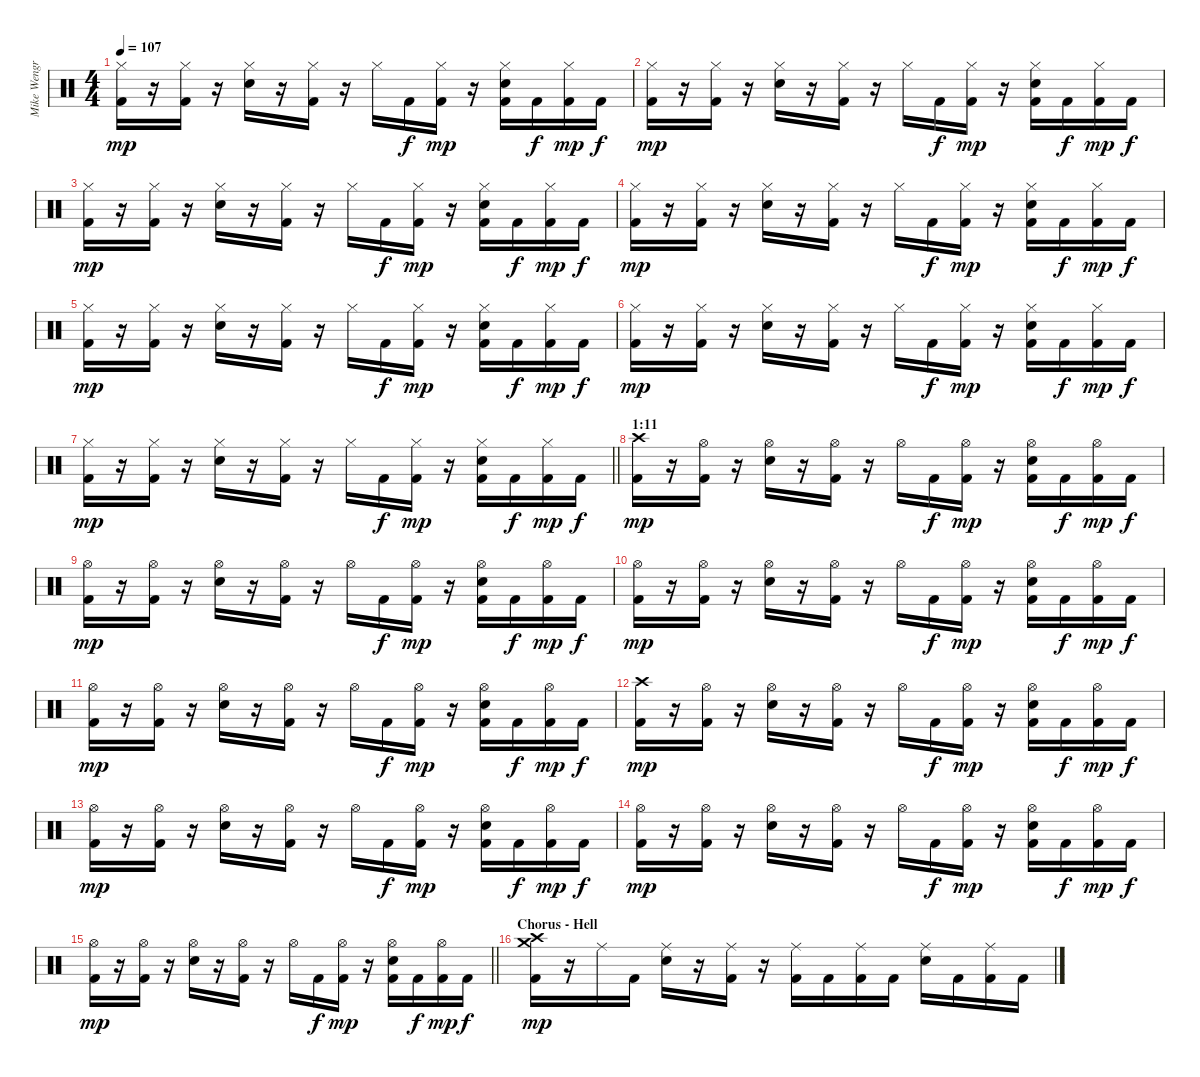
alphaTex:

\track ("Mike Wengren" "Mike Wengr") {instrument percussion}
\staff {score}
\articulation defaults
\ts (4 4)
\tempo 107
\clef neutral
\ks c
("Hi-Hat (closed)" "Kick (hit) 2").16{dy mp} r.16 ("Hi-Hat (closed)" "Kick (hit) 2").16 r.16 ("Hi-Hat (closed)" "Snare (hit) 2").16 r.16 ("Hi-Hat (closed)" "Kick (hit) 2").16 r.16 "Hi-Hat (closed)".16 "Kick (hit) 2".16{dy f} ("Hi-Hat (closed)" "Kick (hit) 2").16{dy mp} r.16 ("Hi-Hat (closed)" "Snare (hit) 2" "Kick (hit) 2").16 "Kick (hit) 2".16{dy f} ("Hi-Hat (closed)" "Kick (hit) 2").16{dy mp} "Kick (hit) 2".16{dy f} |
("Hi-Hat (closed)" "Kick (hit) 2").16{dy mp} r.16 ("Hi-Hat (closed)" "Kick (hit) 2").16 r.16 ("Hi-Hat (closed)" "Snare (hit) 2").16 r.16 ("Hi-Hat (closed)" "Kick (hit) 2").16 r.16 "Hi-Hat (closed)".16 "Kick (hit) 2".16{dy f} ("Hi-Hat (closed)" "Kick (hit) 2").16{dy mp} r.16 ("Hi-Hat (closed)" "Snare (hit) 2" "Kick (hit) 2").16 "Kick (hit) 2".16{dy f} ("Hi-Hat (closed)" "Kick (hit) 2").16{dy mp} "Kick (hit) 2".16{dy f} |
("Hi-Hat (closed)" "Kick (hit) 2").16{dy mp} r.16 ("Hi-Hat (closed)" "Kick (hit) 2").16 r.16 ("Hi-Hat (closed)" "Snare (hit) 2").16 r.16 ("Hi-Hat (closed)" "Kick (hit) 2").16 r.16 "Hi-Hat (closed)".16 "Kick (hit) 2".16{dy f} ("Hi-Hat (closed)" "Kick (hit) 2").16{dy mp} r.16 ("Hi-Hat (closed)" "Snare (hit) 2" "Kick (hit) 2").16 "Kick (hit) 2".16{dy f} ("Hi-Hat (closed)" "Kick (hit) 2").16{dy mp} "Kick (hit) 2".16{dy f} |
("Hi-Hat (closed)" "Kick (hit) 2").16{dy mp} r.16 ("Hi-Hat (closed)" "Kick (hit) 2").16 r.16 ("Hi-Hat (closed)" "Snare (hit) 2").16 r.16 ("Hi-Hat (closed)" "Kick (hit) 2").16 r.16 "Hi-Hat (closed)".16 "Kick (hit) 2".16{dy f} ("Hi-Hat (closed)" "Kick (hit) 2").16{dy mp} r.16 ("Hi-Hat (closed)" "Snare (hit) 2" "Kick (hit) 2").16 "Kick (hit) 2".16{dy f} ("Hi-Hat (closed)" "Kick (hit) 2").16{dy mp} "Kick (hit) 2".16{dy f} |
("Hi-Hat (closed)" "Kick (hit) 2").16{dy mp} r.16 ("Hi-Hat (closed)" "Kick (hit) 2").16 r.16 ("Hi-Hat (closed)" "Snare (hit) 2").16 r.16 ("Hi-Hat (closed)" "Kick (hit) 2").16 r.16 "Hi-Hat (closed)".16 "Kick (hit) 2".16{dy f} ("Hi-Hat (closed)" "Kick (hit) 2").16{dy mp} r.16 ("Hi-Hat (closed)" "Snare (hit) 2" "Kick (hit) 2").16 "Kick (hit) 2".16{dy f} ("Hi-Hat (closed)" "Kick (hit) 2").16{dy mp} "Kick (hit) 2".16{dy f} |
("Hi-Hat (closed)" "Kick (hit) 2").16{dy mp} r.16 ("Hi-Hat (closed)" "Kick (hit) 2").16 r.16 ("Hi-Hat (closed)" "Snare (hit) 2").16 r.16 ("Hi-Hat (closed)" "Kick (hit) 2").16 r.16 "Hi-Hat (closed)".16 "Kick (hit) 2".16{dy f} ("Hi-Hat (closed)" "Kick (hit) 2").16{dy mp} r.16 ("Hi-Hat (closed)" "Snare (hit) 2" "Kick (hit) 2").16 "Kick (hit) 2".16{dy f} ("Hi-Hat (closed)" "Kick (hit) 2").16{dy mp} "Kick (hit) 2".16{dy f} |
\barLineRight lightlight
("Hi-Hat (closed)" "Kick (hit) 2").16{dy mp} r.16 ("Hi-Hat (closed)" "Kick (hit) 2").16 r.16 ("Hi-Hat (closed)" "Snare (hit) 2").16 r.16 ("Hi-Hat (closed)" "Kick (hit) 2").16 r.16 "Hi-Hat (closed)".16 "Kick (hit) 2".16{dy f} ("Hi-Hat (closed)" "Kick (hit) 2").16{dy mp} r.16 ("Hi-Hat (closed)" "Snare (hit) 2" "Kick (hit) 2").16 "Kick (hit) 2".16{dy f} ("Hi-Hat (closed)" "Kick (hit) 2").16{dy mp} "Kick (hit) 2".16{dy f} |
\section ("" "1:11")
("Crash high (hit)" "Kick (hit) 2").16{dy mp} r.16 ("Hi-Hat (open)" "Kick (hit) 2").16 r.16 ("Hi-Hat (open)" "Snare (hit) 2").16 r.16 ("Hi-Hat (open)" "Kick (hit) 2").16 r.16 "Hi-Hat (open)".16 "Kick (hit) 2".16{dy f} ("Hi-Hat (open)" "Kick (hit) 2").16{dy mp} r.16 ("Hi-Hat (open)" "Snare (hit) 2" "Kick (hit) 2").16 "Kick (hit) 2".16{dy f} ("Hi-Hat (open)" "Kick (hit) 2").16{dy mp} "Kick (hit) 2".16{dy f} |
("Hi-Hat (open)" "Kick (hit) 2").16{dy mp} r.16 ("Hi-Hat (open)" "Kick (hit) 2").16 r.16 ("Hi-Hat (open)" "Snare (hit) 2").16 r.16 ("Hi-Hat (open)" "Kick (hit) 2").16 r.16 "Hi-Hat (open)".16 "Kick (hit) 2".16{dy f} ("Hi-Hat (open)" "Kick (hit) 2").16{dy mp} r.16 ("Hi-Hat (open)" "Snare (hit) 2" "Kick (hit) 2").16 "Kick (hit) 2".16{dy f} ("Hi-Hat (open)" "Kick (hit) 2").16{dy mp} "Kick (hit) 2".16{dy f} |
("Hi-Hat (open)" "Kick (hit) 2").16{dy mp} r.16 ("Hi-Hat (open)" "Kick (hit) 2").16 r.16 ("Hi-Hat (open)" "Snare (hit) 2").16 r.16 ("Hi-Hat (open)" "Kick (hit) 2").16 r.16 "Hi-Hat (open)".16 "Kick (hit) 2".16{dy f} ("Hi-Hat (open)" "Kick (hit) 2").16{dy mp} r.16 ("Hi-Hat (open)" "Snare (hit) 2" "Kick (hit) 2").16 "Kick (hit) 2".16{dy f} ("Hi-Hat (open)" "Kick (hit) 2").16{dy mp} "Kick (hit) 2".16{dy f} |
("Hi-Hat (open)" "Kick (hit) 2").16{dy mp} r.16 ("Hi-Hat (open)" "Kick (hit) 2").16 r.16 ("Hi-Hat (open)" "Snare (hit) 2").16 r.16 ("Hi-Hat (open)" "Kick (hit) 2").16 r.16 "Hi-Hat (open)".16 "Kick (hit) 2".16{dy f} ("Hi-Hat (open)" "Kick (hit) 2").16{dy mp} r.16 ("Hi-Hat (open)" "Snare (hit) 2" "Kick (hit) 2").16 "Kick (hit) 2".16{dy f} ("Hi-Hat (open)" "Kick (hit) 2").16{dy mp} "Kick (hit) 2".16{dy f} |
("Crash high (hit)" "Kick (hit) 2").16{dy mp} r.16 ("Hi-Hat (open)" "Kick (hit) 2").16 r.16 ("Hi-Hat (open)" "Snare (hit) 2").16 r.16 ("Hi-Hat (open)" "Kick (hit) 2").16 r.16 "Hi-Hat (open)".16 "Kick (hit) 2".16{dy f} ("Hi-Hat (open)" "Kick (hit) 2").16{dy mp} r.16 ("Hi-Hat (open)" "Snare (hit) 2" "Kick (hit) 2").16 "Kick (hit) 2".16{dy f} ("Hi-Hat (open)" "Kick (hit) 2").16{dy mp} "Kick (hit) 2".16{dy f} |
("Hi-Hat (open)" "Kick (hit) 2").16{dy mp} r.16 ("Hi-Hat (open)" "Kick (hit) 2").16 r.16 ("Hi-Hat (open)" "Snare (hit) 2").16 r.16 ("Hi-Hat (open)" "Kick (hit) 2").16 r.16 "Hi-Hat (open)".16 "Kick (hit) 2".16{dy f} ("Hi-Hat (open)" "Kick (hit) 2").16{dy mp} r.16 ("Hi-Hat (open)" "Snare (hit) 2" "Kick (hit) 2").16 "Kick (hit) 2".16{dy f} ("Hi-Hat (open)" "Kick (hit) 2").16{dy mp} "Kick (hit) 2".16{dy f} |
("Hi-Hat (open)" "Kick (hit) 2").16{dy mp} r.16 ("Hi-Hat (open)" "Kick (hit) 2").16 r.16 ("Hi-Hat (open)" "Snare (hit) 2").16 r.16 ("Hi-Hat (open)" "Kick (hit) 2").16 r.16 "Hi-Hat (open)".16 "Kick (hit) 2".16{dy f} ("Hi-Hat (open)" "Kick (hit) 2").16{dy mp} r.16 ("Hi-Hat (open)" "Snare (hit) 2" "Kick (hit) 2").16 "Kick (hit) 2".16{dy f} ("Hi-Hat (open)" "Kick (hit) 2").16{dy mp} "Kick (hit) 2".16{dy f} |
\barLineRight lightlight
("Hi-Hat (open)" "Kick (hit) 2").16{dy mp} r.16 ("Hi-Hat (open)" "Kick (hit) 2").16 r.16 ("Hi-Hat (open)" "Snare (hit) 2").16 r.16 ("Hi-Hat (open)" "Kick (hit) 2").16 r.16 "Hi-Hat (open)".16 "Kick (hit) 2".16{dy f} ("Hi-Hat (open)" "Kick (hit) 2").16{dy mp} r.16 ("Hi-Hat (open)" "Snare (hit) 2" "Kick (hit) 2").16 "Kick (hit) 2".16{dy f} ("Hi-Hat (open)" "Kick (hit) 2").16{dy mp} "Kick (hit) 2".16{dy f} |
\section ("" "Chorus - Hell")
("Crash high (hit)" "Crash medium (hit)" "Kick (hit) 2").16{dy mp} r.16 "Ride (middle)".16 "Kick (hit) 2".16 ("Ride (middle)" "Snare (hit) 2").16 r.16 ("Ride (middle)" "Kick (hit) 2").16 r.16 ("Ride (middle)" "Kick (hit) 2").16 "Kick (hit) 2".16 ("Ride (middle)" "Kick (hit) 2").16 "Kick (hit) 2".16 ("Ride (middle)" "Snare (hit) 2").16 "Kick (hit) 2".16 ("Ride (middle)" "Kick (hit) 2").16 "Kick (hit) 2".16
